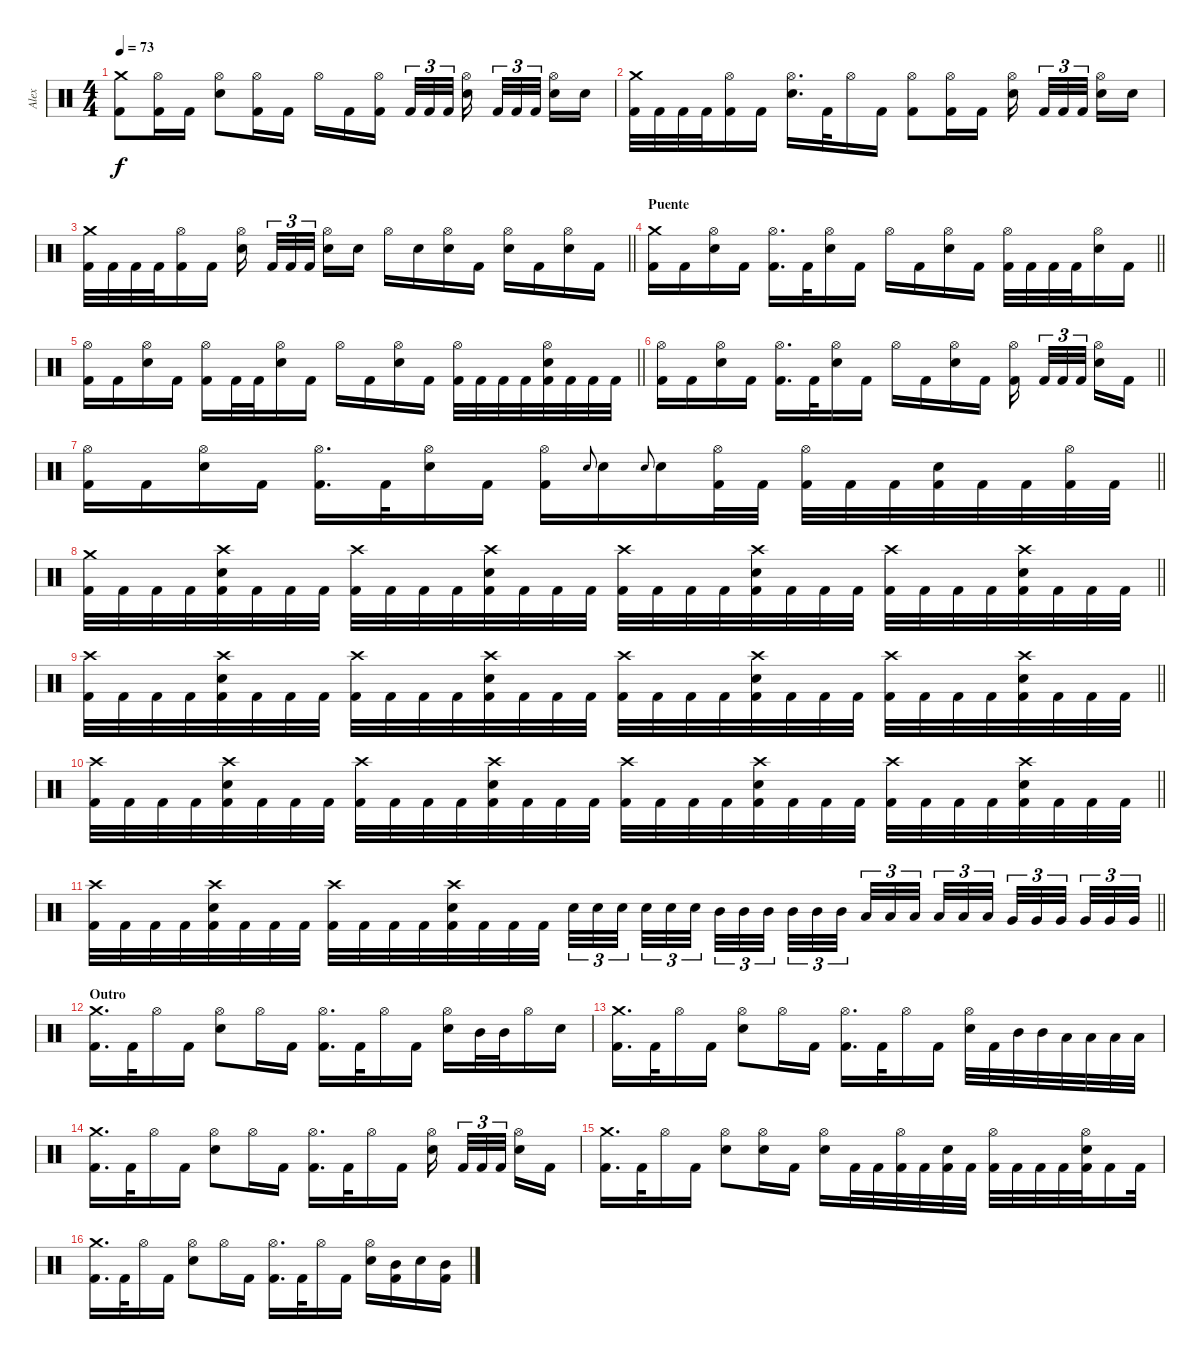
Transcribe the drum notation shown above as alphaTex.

\track ("Alex" "Alex") {instrument percussion}
\staff
\articulation defaults
\ts (4 4)
\tempo 73
\clef neutral
\ks c
("Crash medium (hit)" "Kick (hit) 2").8{dy f} ("Hi-Hat (open)" "Kick (hit) 2").16 "Kick (hit) 2".16 ("Hi-Hat (open)" "Electric Snare (hit)").8 ("Hi-Hat (open)" "Kick (hit) 2").16 "Kick (hit) 2".16 "Hi-Hat (open)".16 "Kick (hit) 2".16 ("Hi-Hat (open)" "Kick (hit) 2").16{beam splitsecondary} "Kick (hit) 2".32{tu (3 2)} "Kick (hit) 2".32{tu (3 2)} "Kick (hit) 2".32{tu (3 2)} ("Hi-Hat (open)" "Electric Snare (hit)").16{beam splitsecondary} "Kick (hit) 2".32{tu (3 2)} "Kick (hit) 2".32{tu (3 2)} "Kick (hit) 2".32{tu (3 2) beam splitsecondary} ("Hi-Hat (open)" "Electric Snare (hit)").16 "Electric Snare (hit)".16 |
("Crash medium (hit)" "Kick (hit) 2").32 "Kick (hit) 2".32 "Kick (hit) 2".32 "Kick (hit) 2".32 ("Hi-Hat (open)" "Kick (hit) 2").16 "Kick (hit) 2".16 ("Hi-Hat (open)" "Electric Snare (hit)").16{d} "Kick (hit) 2".32 "Hi-Hat (open)".16 "Kick (hit) 2".16 ("Hi-Hat (open)" "Kick (hit) 2").8 ("Hi-Hat (open)" "Kick (hit) 2").16 "Kick (hit) 2".16 ("Hi-Hat (open)" "Electric Snare (hit)").16{beam splitsecondary} "Kick (hit) 2".32{tu (3 2)} "Kick (hit) 2".32{tu (3 2)} "Kick (hit) 2".32{tu (3 2) beam splitsecondary} ("Hi-Hat (open)" "Electric Snare (hit)").16 "Electric Snare (hit)".16 |
\barLineRight lightlight
("Crash medium (hit)" "Kick (hit) 2").32 "Kick (hit) 2".32 "Kick (hit) 2".32 "Kick (hit) 2".32 ("Hi-Hat (open)" "Kick (hit) 2").16 "Kick (hit) 2".16 ("Hi-Hat (open)" "Electric Snare (hit)").16{beam splitsecondary} "Kick (hit) 2".32{tu (3 2)} "Kick (hit) 2".32{tu (3 2)} "Kick (hit) 2".32{tu (3 2) beam splitsecondary} ("Hi-Hat (open)" "Electric Snare (hit)").16 "Electric Snare (hit)".16 "Hi-Hat (open)".16 "Electric Snare (hit)".16 ("Hi-Hat (open)" "Electric Snare (hit)").16 "Kick (hit) 2".16 ("Hi-Hat (open)" "Electric Snare (hit)").16 "Kick (hit) 2".16 ("Hi-Hat (open)" "Electric Snare (hit)").16 "Kick (hit) 2".16 |
\section ("" "Puente")
\barLineRight lightlight
("Crash medium (hit)" "Kick (hit) 2").16 "Kick (hit) 2".16 ("Hi-Hat (open)" "Electric Snare (hit)").16 "Kick (hit) 2".16 ("Hi-Hat (open)" "Kick (hit) 2").16{d} "Kick (hit) 2".32 ("Hi-Hat (open)" "Electric Snare (hit)").16 "Kick (hit) 2".16 "Hi-Hat (open)".16 "Kick (hit) 2".16 ("Hi-Hat (open)" "Electric Snare (hit)").16 "Kick (hit) 2".16 ("Hi-Hat (open)" "Kick (hit) 2").32 "Kick (hit) 2".32 "Kick (hit) 2".32 "Kick (hit) 2".32 ("Hi-Hat (open)" "Electric Snare (hit)").16 "Kick (hit) 2".16 |
\barLineRight lightlight
("Hi-Hat (open)" "Kick (hit) 2").16 "Kick (hit) 2".16 ("Hi-Hat (open)" "Electric Snare (hit)").16 "Kick (hit) 2".16 ("Hi-Hat (open)" "Kick (hit) 2").16 "Kick (hit) 2".32 "Kick (hit) 2".32 ("Hi-Hat (open)" "Electric Snare (hit)").16 "Kick (hit) 2".16 "Hi-Hat (open)".16 "Kick (hit) 2".16 ("Hi-Hat (open)" "Electric Snare (hit)").16 "Kick (hit) 2".16 ("Hi-Hat (open)" "Kick (hit) 2").32 "Kick (hit) 2".32 "Kick (hit) 2".32 "Kick (hit) 2".32 ("Hi-Hat (open)" "Electric Snare (hit)" "Kick (hit) 2").32 "Kick (hit) 2".32 "Kick (hit) 2".32 "Kick (hit) 2".32 |
\barLineRight lightlight
("Hi-Hat (open)" "Kick (hit) 2").16 "Kick (hit) 2".16 ("Hi-Hat (open)" "Electric Snare (hit)").16 "Kick (hit) 2".16 ("Hi-Hat (open)" "Kick (hit) 2").16{d} "Kick (hit) 2".32 ("Hi-Hat (open)" "Electric Snare (hit)").16 "Kick (hit) 2".16 "Hi-Hat (open)".16 "Kick (hit) 2".16 ("Hi-Hat (open)" "Electric Snare (hit)").16 "Kick (hit) 2".16 ("Hi-Hat (open)" "Kick (hit) 2").16{beam splitsecondary} "Kick (hit) 2".32{tu (3 2)} "Kick (hit) 2".32{tu (3 2)} "Kick (hit) 2".32{tu (3 2) beam splitsecondary} ("Hi-Hat (open)" "Electric Snare (hit)").16 "Kick (hit) 2".16 |
\barLineRight lightlight
("Hi-Hat (open)" "Kick (hit) 2").16 "Kick (hit) 2".16 ("Hi-Hat (open)" "Electric Snare (hit)").16 "Kick (hit) 2".16 ("Hi-Hat (open)" "Kick (hit) 2").16{d} "Kick (hit) 2".32 ("Hi-Hat (open)" "Electric Snare (hit)").16 "Kick (hit) 2".16 ("Hi-Hat (open)" "Kick (hit) 2").16 "Electric Snare (hit)".8{gr onbeat} "Electric Snare (hit)".16 "Electric Snare (hit)".8{gr onbeat} "Electric Snare (hit)".16 ("Hi-Hat (open)" "Kick (hit) 2").32 "Kick (hit) 2".32 ("Hi-Hat (open)" "Kick (hit) 2").32 "Kick (hit) 2".32 "Kick (hit) 2".32 ("Electric Snare (hit)" "Kick (hit) 2").32 "Kick (hit) 2".32 "Kick (hit) 2".32 ("Hi-Hat (open)" "Kick (hit) 2").32 "Kick (hit) 2".32 |
\barLineRight lightlight
("Crash medium (hit)" "Kick (hit) 2").32 "Kick (hit) 2".32 "Kick (hit) 2".32 "Kick (hit) 2".32 ("Crash high (hit)" "Electric Snare (hit)" "Kick (hit) 2").32 "Kick (hit) 2".32 "Kick (hit) 2".32 "Kick (hit) 2".32 ("Crash high (hit)" "Kick (hit) 2").32 "Kick (hit) 2".32 "Kick (hit) 2".32 "Kick (hit) 2".32 ("Crash high (hit)" "Electric Snare (hit)" "Kick (hit) 2").32 "Kick (hit) 2".32 "Kick (hit) 2".32 "Kick (hit) 2".32 ("Crash high (hit)" "Kick (hit) 2").32 "Kick (hit) 2".32 "Kick (hit) 2".32 "Kick (hit) 2".32 ("Crash high (hit)" "Electric Snare (hit)" "Kick (hit) 2").32 "Kick (hit) 2".32 "Kick (hit) 2".32 "Kick (hit) 2".32 ("Crash high (hit)" "Kick (hit) 2").32 "Kick (hit) 2".32 "Kick (hit) 2".32 "Kick (hit) 2".32 ("Crash high (hit)" "Electric Snare (hit)" "Kick (hit) 2").32 "Kick (hit) 2".32 "Kick (hit) 2".32 "Kick (hit) 2".32 |
\barLineRight lightlight
("Crash high (hit)" "Kick (hit) 2").32 "Kick (hit) 2".32 "Kick (hit) 2".32 "Kick (hit) 2".32 ("Crash high (hit)" "Electric Snare (hit)" "Kick (hit) 2").32 "Kick (hit) 2".32 "Kick (hit) 2".32 "Kick (hit) 2".32 ("Crash high (hit)" "Kick (hit) 2").32 "Kick (hit) 2".32 "Kick (hit) 2".32 "Kick (hit) 2".32 ("Crash high (hit)" "Electric Snare (hit)" "Kick (hit) 2").32 "Kick (hit) 2".32 "Kick (hit) 2".32 "Kick (hit) 2".32 ("Crash high (hit)" "Kick (hit) 2").32 "Kick (hit) 2".32 "Kick (hit) 2".32 "Kick (hit) 2".32 ("Crash high (hit)" "Electric Snare (hit)" "Kick (hit) 2").32 "Kick (hit) 2".32 "Kick (hit) 2".32 "Kick (hit) 2".32 ("Crash high (hit)" "Kick (hit) 2").32 "Kick (hit) 2".32 "Kick (hit) 2".32 "Kick (hit) 2".32 ("Crash high (hit)" "Electric Snare (hit)" "Kick (hit) 2").32 "Kick (hit) 2".32 "Kick (hit) 2".32 "Kick (hit) 2".32 |
\barLineRight lightlight
("Crash high (hit)" "Kick (hit) 2").32 "Kick (hit) 2".32 "Kick (hit) 2".32 "Kick (hit) 2".32 ("Crash high (hit)" "Electric Snare (hit)" "Kick (hit) 2").32 "Kick (hit) 2".32 "Kick (hit) 2".32 "Kick (hit) 2".32 ("Crash high (hit)" "Kick (hit) 2").32 "Kick (hit) 2".32 "Kick (hit) 2".32 "Kick (hit) 2".32 ("Crash high (hit)" "Electric Snare (hit)" "Kick (hit) 2").32 "Kick (hit) 2".32 "Kick (hit) 2".32 "Kick (hit) 2".32 ("Crash high (hit)" "Kick (hit) 2").32 "Kick (hit) 2".32 "Kick (hit) 2".32 "Kick (hit) 2".32 ("Crash high (hit)" "Electric Snare (hit)" "Kick (hit) 2").32 "Kick (hit) 2".32 "Kick (hit) 2".32 "Kick (hit) 2".32 ("Crash high (hit)" "Kick (hit) 2").32 "Kick (hit) 2".32 "Kick (hit) 2".32 "Kick (hit) 2".32 ("Crash high (hit)" "Electric Snare (hit)" "Kick (hit) 2").32 "Kick (hit) 2".32 "Kick (hit) 2".32 "Kick (hit) 2".32 |
\barLineRight lightlight
("Crash high (hit)" "Kick (hit) 2").32 "Kick (hit) 2".32 "Kick (hit) 2".32 "Kick (hit) 2".32 ("Crash high (hit)" "Electric Snare (hit)" "Kick (hit) 2").32 "Kick (hit) 2".32 "Kick (hit) 2".32 "Kick (hit) 2".32 ("Crash high (hit)" "Kick (hit) 2").32 "Kick (hit) 2".32 "Kick (hit) 2".32 "Kick (hit) 2".32 ("Crash high (hit)" "Electric Snare (hit)" "Kick (hit) 2").32 "Kick (hit) 2".32 "Kick (hit) 2".32 "Kick (hit) 2".32 "Electric Snare (hit)".32{tu (3 2)} "Electric Snare (hit)".32{tu (3 2)} "Electric Snare (hit)".32{tu (3 2) beam splitsecondary} "Electric Snare (hit)".32{tu (3 2)} "Electric Snare (hit)".32{tu (3 2)} "Electric Snare (hit)".32{tu (3 2) beam splitsecondary} "Mid Tom (hit)".32{tu (3 2)} "Mid Tom (hit)".32{tu (3 2)} "Mid Tom (hit)".32{tu (3 2) beam splitsecondary} "Mid Tom (hit)".32{tu (3 2)} "Mid Tom (hit)".32{tu (3 2)} "Mid Tom (hit)".32{tu (3 2)} "Low Tom (hit)".32{tu (3 2)} "Low Tom (hit)".32{tu (3 2)} "Low Tom (hit)".32{tu (3 2) beam splitsecondary} "Low Tom (hit)".32{tu (3 2)} "Low Tom (hit)".32{tu (3 2)} "Low Tom (hit)".32{tu (3 2) beam splitsecondary} "Very Low Tom (hit)".32{tu (3 2)} "Very Low Tom (hit)".32{tu (3 2)} "Very Low Tom (hit)".32{tu (3 2) beam splitsecondary} "Very Low Tom (hit)".32{tu (3 2)} "Very Low Tom (hit)".32{tu (3 2)} "Very Low Tom (hit)".32{tu (3 2)} |
\section ("" "Outro")
("Crash medium (hit)" "Kick (hit) 2").16{d} "Kick (hit) 2".32 "Hi-Hat (open)".16 "Kick (hit) 2".16 ("Hi-Hat (open)" "Electric Snare (hit)").8 "Hi-Hat (open)".16 "Kick (hit) 2".16 ("Hi-Hat (open)" "Kick (hit) 2").16{d} "Kick (hit) 2".32 "Hi-Hat (open)".16 "Kick (hit) 2".16 ("Hi-Hat (open)" "Electric Snare (hit)").16 "Mid Tom (hit)".32 "Mid Tom (hit)".32 "Hi-Hat (open)".16 "Electric Snare (hit)".16 |
("Crash medium (hit)" "Kick (hit) 2").16{d} "Kick (hit) 2".32 "Hi-Hat (open)".16 "Kick (hit) 2".16 ("Hi-Hat (open)" "Electric Snare (hit)").8 "Hi-Hat (open)".16 "Kick (hit) 2".16 ("Hi-Hat (open)" "Kick (hit) 2").16{d} "Kick (hit) 2".32 "Hi-Hat (open)".16 "Kick (hit) 2".16 ("Hi-Hat (open)" "Electric Snare (hit)").32 "Kick (hit) 2".32 "Mid Tom (hit)".32 "Mid Tom (hit)".32 "Low Tom (hit)".32 "Low Tom (hit)".32 "Low Floor Tom (hit)".32 "Low Floor Tom (hit)".32 |
("Crash medium (hit)" "Kick (hit) 2").16{d} "Kick (hit) 2".32 "Hi-Hat (open)".16 "Kick (hit) 2".16 ("Hi-Hat (open)" "Electric Snare (hit)").8 "Hi-Hat (open)".16 "Kick (hit) 2".16 ("Hi-Hat (open)" "Kick (hit) 2").16{d} "Kick (hit) 2".32 "Hi-Hat (open)".16 "Kick (hit) 2".16 ("Hi-Hat (open)" "Electric Snare (hit)").16{beam splitsecondary} "Kick (hit) 2".32{tu (3 2)} "Kick (hit) 2".32{tu (3 2)} "Kick (hit) 2".32{tu (3 2) beam splitsecondary} ("Hi-Hat (open)" "Electric Snare (hit)").16 "Kick (hit) 2".16 |
("Crash medium (hit)" "Kick (hit) 2").16{d} "Kick (hit) 2".32 "Hi-Hat (open)".16 "Kick (hit) 2".16 ("Hi-Hat (open)" "Electric Snare (hit)").8 ("Hi-Hat (open)" "Electric Snare (hit)").16 "Kick (hit) 2".16 ("Hi-Hat (open)" "Electric Snare (hit)").16 "Kick (hit) 2".32 "Kick (hit) 2".32 ("Hi-Hat (open)" "Kick (hit) 2").32 "Kick (hit) 2".32 ("Electric Snare (hit)" "Kick (hit) 2").32 "Kick (hit) 2".32 ("Hi-Hat (open)" "Kick (hit) 2").32 "Kick (hit) 2".32 "Kick (hit) 2".32 "Kick (hit) 2".32 ("Hi-Hat (open)" "Electric Snare (hit)" "Kick (hit) 2").32 "Kick (hit) 2".16 "Kick (hit) 2".32 |
("Crash medium (hit)" "Kick (hit) 2").16{d} "Kick (hit) 2".32 "Hi-Hat (open)".16 "Kick (hit) 2".16 ("Hi-Hat (open)" "Electric Snare (hit)").8 "Hi-Hat (open)".16 "Kick (hit) 2".16 ("Hi-Hat (open)" "Kick (hit) 2").16{d volume 0} "Kick (hit) 2".32 "Hi-Hat (open)".16 "Kick (hit) 2".16 ("Hi-Hat (open)" "Electric Snare (hit)").16 ("Mid Tom (hit)" "Kick (hit) 2").16 "Electric Snare (hit)".16 ("Mid Tom (hit)" "Kick (hit) 2").16
